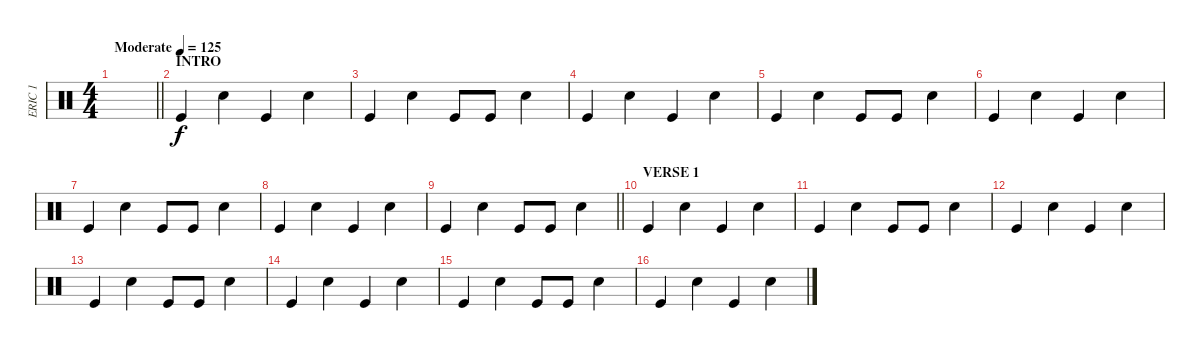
\track ("ERIC 1" "ERIC 1") {instrument percussion}
\staff {score}
\articulation defaults
\ts (4 4)
\tempo (125 "Moderate")
\clef neutral
\barLineRight lightlight
\ks c
|
\section ("" "INTRO")
"Kick (hit)".4 "Electric Snare (hit)".4 "Kick (hit)".4 "Electric Snare (hit)".4 |
"Kick (hit)".4 "Electric Snare (hit)".4 "Kick (hit)".8 "Kick (hit)".8 "Electric Snare (hit)".4 |
"Kick (hit)".4 "Electric Snare (hit)".4 "Kick (hit)".4 "Electric Snare (hit)".4 |
"Kick (hit)".4 "Electric Snare (hit)".4 "Kick (hit)".8 "Kick (hit)".8 "Electric Snare (hit)".4 |
"Kick (hit)".4 "Electric Snare (hit)".4 "Kick (hit)".4 "Electric Snare (hit)".4 |
"Kick (hit)".4 "Electric Snare (hit)".4 "Kick (hit)".8 "Kick (hit)".8 "Electric Snare (hit)".4 |
"Kick (hit)".4 "Electric Snare (hit)".4 "Kick (hit)".4 "Electric Snare (hit)".4 |
\barLineRight lightlight "Kick (hit)".4 "Electric Snare (hit)".4 "Kick (hit)".8 "Kick (hit)".8 "Electric Snare (hit)".4
|
\section ("" "VERSE 1")
"Kick (hit)".4 "Electric Snare (hit)".4 "Kick (hit)".4 "Electric Snare (hit)".4 |
"Kick (hit)".4 "Electric Snare (hit)".4 "Kick (hit)".8 "Kick (hit)".8 "Electric Snare (hit)".4 |
"Kick (hit)".4 "Electric Snare (hit)".4 "Kick (hit)".4 "Electric Snare (hit)".4 |
"Kick (hit)".4 "Electric Snare (hit)".4 "Kick (hit)".8 "Kick (hit)".8 "Electric Snare (hit)".4 |
"Kick (hit)".4 "Electric Snare (hit)".4 "Kick (hit)".4 "Electric Snare (hit)".4 |
"Kick (hit)".4 "Electric Snare (hit)".4 "Kick (hit)".8 "Kick (hit)".8 "Electric Snare (hit)".4 |
"Kick (hit)".4 "Electric Snare (hit)".4 "Kick (hit)".4 "Electric Snare (hit)".4
